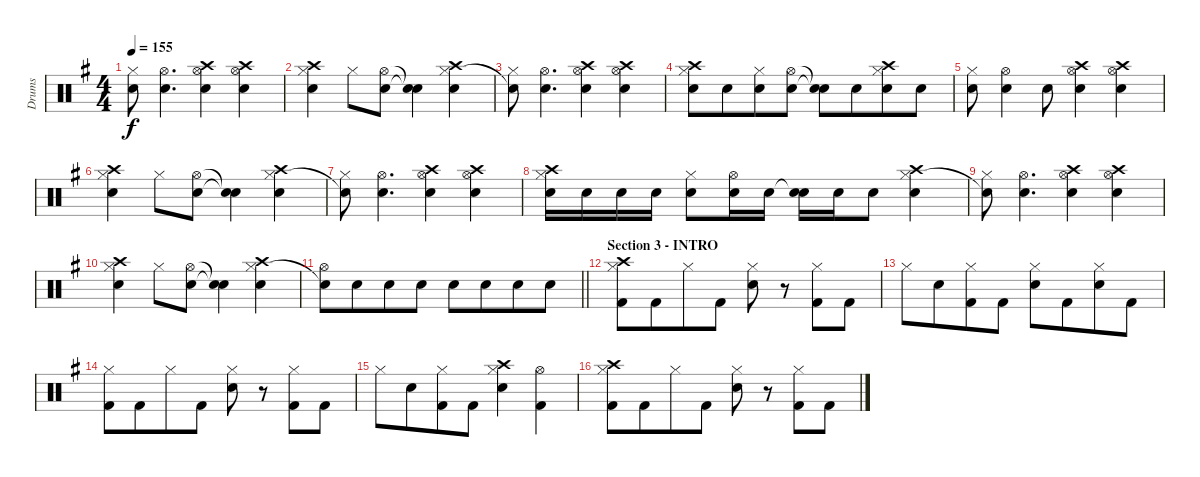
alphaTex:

\track ("Drums" "Drums") {instrument percussion}
\staff {score}
\articulation defaults
\ts (4 4)
\tempo 155
\clef neutral
\ks eminor
("Hi-Hat (closed)" "Snare (hit)"{t}).8{dy f} ("Hi-Hat (open)" "Electric Snare (hit)").4{d} ("Crash high (hit)" "Hi-Hat (open)" "Electric Snare (hit)").4 ("Crash high (hit)" "Hi-Hat (open)" "Electric Snare (hit)").4 |
("Crash high (hit)" "Hi-Hat (closed)" "Electric Snare (hit)").4 "Hi-Hat (closed)".8 ("Hi-Hat (open)" "Electric Snare (hit)").8 ("Snare (hit)"{t} "Snare (hit)"{t}).4 ("Crash high (hit)" "Hi-Hat (closed)" "Electric Snare (hit)").4 |
("Hi-Hat (closed)" "Snare (hit)"{t}).8 ("Hi-Hat (open)" "Electric Snare (hit)").4{d} ("Crash high (hit)" "Hi-Hat (open)" "Electric Snare (hit)").4 ("Crash high (hit)" "Hi-Hat (open)" "Electric Snare (hit)").4 |
("Crash high (hit)" "Hi-Hat (closed)" "Electric Snare (hit)").8 "Electric Snare (hit)".8{beam merge} ("Hi-Hat (closed)" "Electric Snare (hit)").8 ("Hi-Hat (open)" "Electric Snare (hit)").8 ("Snare (hit)"{t} "Snare (hit)"{t}).8 "Electric Snare (hit)".8{beam merge} ("Crash high (hit)" "Hi-Hat (closed)" "Electric Snare (hit)").8 "Electric Snare (hit)".8 |
("Hi-Hat (closed)" "Electric Snare (hit)").8 ("Hi-Hat (open)" "Electric Snare (hit)").4 "Electric Snare (hit)".8 ("Crash high (hit)" "Hi-Hat (open)" "Electric Snare (hit)").4 ("Crash high (hit)" "Hi-Hat (open)" "Electric Snare (hit)").4 |
("Crash high (hit)" "Hi-Hat (closed)" "Electric Snare (hit)").4 "Hi-Hat (closed)".8 ("Hi-Hat (open)" "Electric Snare (hit)").8 ("Snare (hit)"{t} "Snare (hit)"{t}).4 ("Crash high (hit)" "Hi-Hat (closed)" "Electric Snare (hit)").4 |
("Hi-Hat (closed)" "Snare (hit)"{t}).8 ("Hi-Hat (open)" "Electric Snare (hit)").4{d} ("Crash high (hit)" "Hi-Hat (open)" "Electric Snare (hit)").4 ("Crash high (hit)" "Hi-Hat (open)" "Electric Snare (hit)").4 |
("Crash high (hit)" "Hi-Hat (closed)" "Electric Snare (hit)").16 "Electric Snare (hit)".16 "Electric Snare (hit)".16 "Electric Snare (hit)".16 ("Hi-Hat (closed)" "Electric Snare (hit)").8 ("Hi-Hat (open)" "Electric Snare (hit)").16 "Electric Snare (hit)".16 ("Snare (hit)"{t} "Electric Snare (hit)").16 "Electric Snare (hit)".16 "Electric Snare (hit)".8 ("Crash high (hit)" "Hi-Hat (closed)" "Electric Snare (hit)").4 |
("Hi-Hat (closed)" "Snare (hit)"{t}).8 ("Hi-Hat (open)" "Electric Snare (hit)").4{d} ("Crash high (hit)" "Hi-Hat (open)" "Electric Snare (hit)").4 ("Crash high (hit)" "Hi-Hat (open)" "Electric Snare (hit)").4 |
("Crash high (hit)" "Hi-Hat (closed)" "Electric Snare (hit)").4 "Hi-Hat (closed)".8 ("Hi-Hat (open)" "Electric Snare (hit)").8 ("Snare (hit)"{t} "Snare (hit)"{t}).4 ("Crash high (hit)" "Hi-Hat (closed)" "Electric Snare (hit)").4 |
\barLineRight lightlight
("Hi-Hat (open)" "Snare (hit)"{t}).8 "Electric Snare (hit)".8{beam merge} "Electric Snare (hit)".8 "Electric Snare (hit)".8 "Electric Snare (hit)".8 "Electric Snare (hit)".8{beam merge} "Electric Snare (hit)".8 "Electric Snare (hit)".8 |
\section ("" "Section 3 - INTRO")
("Crash high (hit)" "Hi-Hat (closed)" "Kick (hit) 2").8 "Kick (hit) 2".8{beam merge} "Hi-Hat (closed)".8 "Kick (hit) 2".8 ("Hi-Hat (closed)" "Electric Snare (hit)").8 r.8 ("Hi-Hat (closed)" "Kick (hit) 2").8 "Kick (hit) 2".8 |
"Hi-Hat (closed)".8 "Electric Snare (hit)".8{beam merge} ("Hi-Hat (closed)" "Kick (hit) 2").8 "Kick (hit) 2".8 ("Hi-Hat (closed)" "Electric Snare (hit)").8 "Kick (hit) 2".8{beam merge} ("Hi-Hat (closed)" "Electric Snare (hit)").8 "Kick (hit) 2".8 |
("Hi-Hat (closed)" "Kick (hit) 2").8 "Kick (hit) 2".8{beam merge} "Hi-Hat (closed)".8 "Kick (hit) 2".8 ("Hi-Hat (closed)" "Electric Snare (hit)").8 r.8 ("Hi-Hat (closed)" "Kick (hit) 2").8 "Kick (hit) 2".8 |
"Hi-Hat (closed)".8 "Electric Snare (hit)".8{beam merge} ("Hi-Hat (closed)" "Kick (hit) 2").8 "Kick (hit) 2".8 ("Crash high (hit)" "Hi-Hat (closed)" "Electric Snare (hit)").4 ("Hi-Hat (open)" "Kick (hit) 2").4 |
("Crash high (hit)" "Hi-Hat (closed)" "Kick (hit) 2").8 "Kick (hit) 2".8{beam merge} "Hi-Hat (closed)".8 "Kick (hit) 2".8 ("Hi-Hat (closed)" "Electric Snare (hit)").8 r.8 ("Hi-Hat (closed)" "Kick (hit) 2").8 "Kick (hit) 2".8
